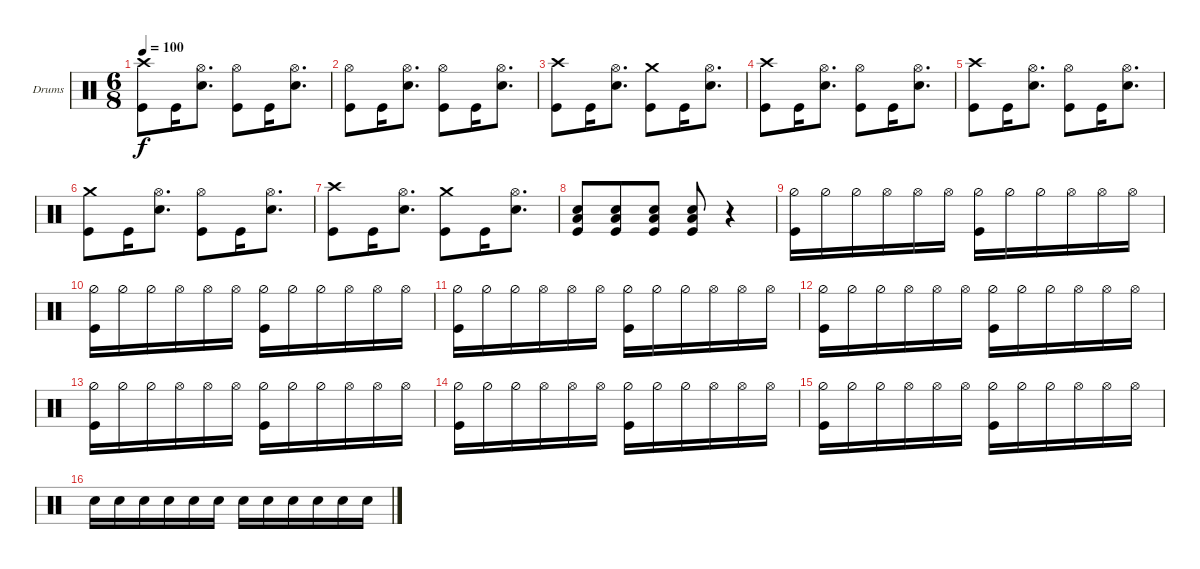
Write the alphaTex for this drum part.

\defaultSystemsLayout 4
\bracketExtendMode groupsimilarinstruments
\firstSystemTrackNameOrientation horizontal
\otherSystemsTrackNameOrientation horizontal
\track ("Stefan Schwarzmann" "Drums") {instrument percussion}
\staff {score}
\articulation defaults
\ts (6 8)
\tempo 100
\clef neutral
\ks c
("Kick (hit)" "Crash high (hit)").8{dy f} "Kick (hit)".16 ("Snare (hit) 2" "Hi-Hat (open)").8{d} ("Kick (hit)" "Hi-Hat (open)").8 "Kick (hit)".16 ("Snare (hit) 2" "Hi-Hat (open)").8{d} |
("Kick (hit)" "Hi-Hat (open)").8 "Kick (hit)".16 ("Snare (hit) 2" "Hi-Hat (open)").8{d} ("Kick (hit)" "Hi-Hat (open)").8 "Kick (hit)".16 ("Snare (hit) 2" "Hi-Hat (open)").8{d} |
("Kick (hit)" "Crash high (hit)").8 "Kick (hit)".16 ("Snare (hit) 2" "Hi-Hat (open)").8{d} ("Kick (hit)" "Crash medium (hit)").8 "Kick (hit)".16 ("Snare (hit) 2" "Hi-Hat (open)").8{d} |
("Kick (hit)" "Crash high (hit)").8 "Kick (hit)".16 ("Snare (hit) 2" "Hi-Hat (open)").8{d} ("Kick (hit)" "Hi-Hat (open)").8 "Kick (hit)".16 ("Snare (hit) 2" "Hi-Hat (open)").8{d} |
("Kick (hit)" "Crash high (hit)").8 "Kick (hit)".16 ("Snare (hit) 2" "Hi-Hat (open)").8{d} ("Kick (hit)" "Hi-Hat (open)").8 "Kick (hit)".16 ("Snare (hit) 2" "Hi-Hat (open)").8{d} |
("Kick (hit)" "Crash medium (hit)").8 "Kick (hit)".16 ("Snare (hit) 2" "Hi-Hat (open)").8{d} ("Kick (hit)" "Hi-Hat (open)").8 "Kick (hit)".16 ("Snare (hit) 2" "Hi-Hat (open)").8{d} |
("Kick (hit)" "Crash high (hit)").8 "Kick (hit)".16 ("Snare (hit) 2" "Hi-Hat (open)").8{d} ("Kick (hit)" "Crash medium (hit)").8 "Kick (hit)".16 ("Snare (hit) 2" "Hi-Hat (open)").8{d} |
("Kick (hit)" "Snare (hit) 2" "Low Tom (hit)").8 ("Kick (hit)" "Snare (hit) 2" "Low Tom (hit)").8 ("Kick (hit)" "Snare (hit) 2" "Low Tom (hit)").8 ("Kick (hit)" "Snare (hit) 2" "Low Tom (hit)").8 r.4 |
("Kick (hit)" "Hi-Hat (half)").16 "Hi-Hat (half)".16 "Hi-Hat (half)".16 "Hi-Hat (open)".16 "Hi-Hat (open)".16 "Hi-Hat (open)".16 ("Hi-Hat (half)" "Kick (hit)").16 "Hi-Hat (half)".16 "Hi-Hat (half)".16 "Hi-Hat (open)".16 "Hi-Hat (open)".16 "Hi-Hat (open)".16 |
("Kick (hit)" "Hi-Hat (half)").16 "Hi-Hat (half)".16 "Hi-Hat (half)".16 "Hi-Hat (open)".16 "Hi-Hat (open)".16 "Hi-Hat (open)".16 ("Hi-Hat (half)" "Kick (hit)").16 "Hi-Hat (half)".16 "Hi-Hat (half)".16 "Hi-Hat (open)".16 "Hi-Hat (open)".16 "Hi-Hat (open)".16 |
("Kick (hit)" "Hi-Hat (half)").16 "Hi-Hat (half)".16 "Hi-Hat (half)".16 "Hi-Hat (open)".16 "Hi-Hat (open)".16 "Hi-Hat (open)".16 ("Hi-Hat (half)" "Kick (hit)").16 "Hi-Hat (half)".16 "Hi-Hat (half)".16 "Hi-Hat (open)".16 "Hi-Hat (open)".16 "Hi-Hat (open)".16 |
("Kick (hit)" "Hi-Hat (half)").16 "Hi-Hat (half)".16 "Hi-Hat (half)".16 "Hi-Hat (open)".16 "Hi-Hat (open)".16 "Hi-Hat (open)".16 ("Hi-Hat (half)" "Kick (hit)").16 "Hi-Hat (half)".16 "Hi-Hat (half)".16 "Hi-Hat (open)".16 "Hi-Hat (open)".16 "Hi-Hat (open)".16 |
("Kick (hit)" "Hi-Hat (half)").16 "Hi-Hat (half)".16 "Hi-Hat (half)".16 "Hi-Hat (open)".16 "Hi-Hat (open)".16 "Hi-Hat (open)".16 ("Hi-Hat (half)" "Kick (hit)").16 "Hi-Hat (half)".16 "Hi-Hat (half)".16 "Hi-Hat (open)".16 "Hi-Hat (open)".16 "Hi-Hat (open)".16 |
("Kick (hit)" "Hi-Hat (half)").16 "Hi-Hat (half)".16 "Hi-Hat (half)".16 "Hi-Hat (open)".16 "Hi-Hat (open)".16 "Hi-Hat (open)".16 ("Hi-Hat (half)" "Kick (hit)").16 "Hi-Hat (half)".16 "Hi-Hat (half)".16 "Hi-Hat (open)".16 "Hi-Hat (open)".16 "Hi-Hat (open)".16 |
("Kick (hit)" "Hi-Hat (half)").16 "Hi-Hat (half)".16 "Hi-Hat (half)".16 "Hi-Hat (open)".16 "Hi-Hat (open)".16 "Hi-Hat (open)".16 ("Hi-Hat (half)" "Kick (hit)").16 "Hi-Hat (half)".16 "Hi-Hat (half)".16 "Hi-Hat (open)".16 "Hi-Hat (open)".16 "Hi-Hat (open)".16 |
"Snare (hit) 2".16 "Snare (hit) 2".16 "Snare (hit) 2".16 "Snare (hit) 2".16 "Snare (hit) 2".16 "Snare (hit) 2".16 "Snare (hit) 2".16 "Snare (hit) 2".16 "Snare (hit) 2".16 "Snare (hit) 2".16 "Snare (hit) 2".16 "Snare (hit) 2".16
